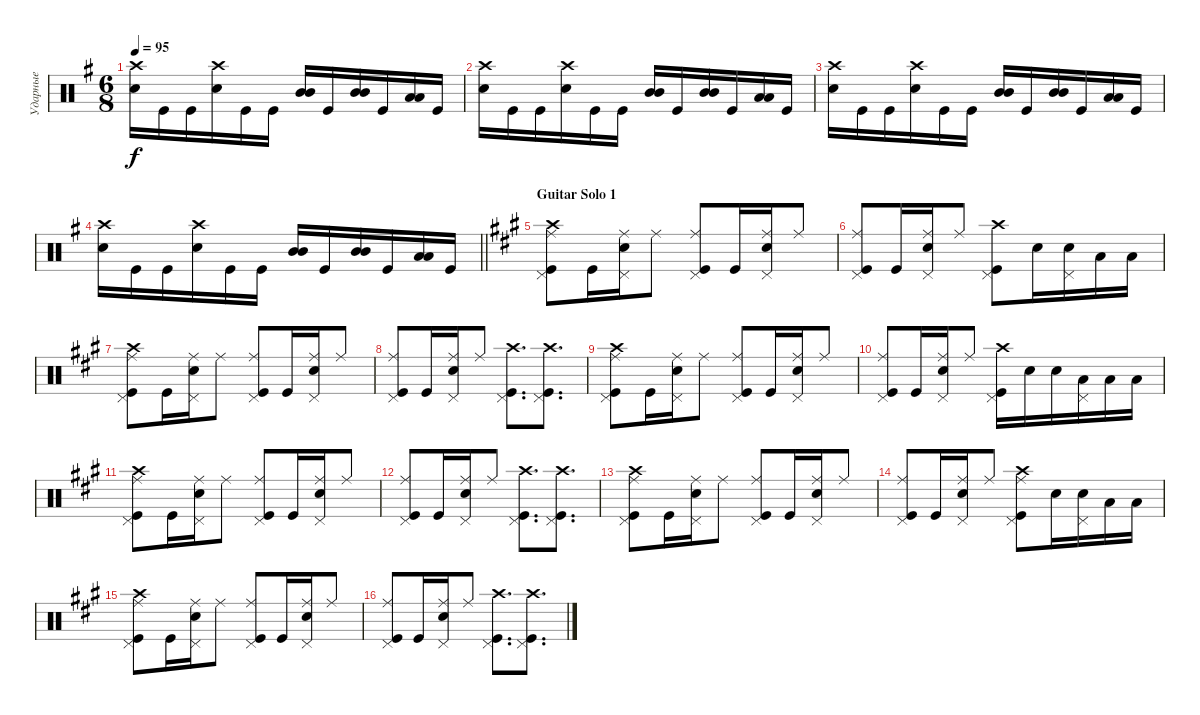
\track ("Ударные" "Ударные") {instrument percussion}
\staff {score}
\articulation defaults
\ts (6 8)
\tempo 95
\clef neutral
\ks eminor
("Snare (hit) 2" "Crash high (hit)").16{dy f} "Kick (hit)".16 "Kick (hit)".16 ("Snare (hit) 2" "Crash high (hit)").16 "Kick (hit)".16 "Kick (hit)".16 ("Mid Tom (hit)" "Mid Tom (hit)").16{bd 240} "Kick (hit)".16 ("Mid Tom (hit)" "Mid Tom (hit)").16{bd 240} "Kick (hit)".16 ("Low Tom (hit)" "Low Tom (hit)").16{bd 240} "Kick (hit)".16 |
("Snare (hit) 2" "Crash high (hit)").16 "Kick (hit)".16 "Kick (hit)".16 ("Snare (hit) 2" "Crash high (hit)").16 "Kick (hit)".16 "Kick (hit)".16 ("Mid Tom (hit)" "Mid Tom (hit)").16{bd 240} "Kick (hit)".16 ("Mid Tom (hit)" "Mid Tom (hit)").16{bd 240} "Kick (hit)".16 ("Low Tom (hit)" "Low Tom (hit)").16{bd 240} "Kick (hit)".16 |
("Snare (hit) 2" "Crash high (hit)").16 "Kick (hit)".16 "Kick (hit)".16 ("Snare (hit) 2" "Crash high (hit)").16 "Kick (hit)".16 "Kick (hit)".16 ("Mid Tom (hit)" "Mid Tom (hit)").16{bd 240} "Kick (hit)".16 ("Mid Tom (hit)" "Mid Tom (hit)").16{bd 240} "Kick (hit)".16 ("Low Tom (hit)" "Low Tom (hit)").16{bd 240} "Kick (hit)".16 |
\barLineRight lightlight
("Snare (hit) 2" "Crash high (hit)").16 "Kick (hit)".16 "Kick (hit)".16 ("Snare (hit) 2" "Crash high (hit)").16 "Kick (hit)".16 "Kick (hit)".16 ("Mid Tom (hit)" "Mid Tom (hit)").16{bd 240} "Kick (hit)".16 ("Mid Tom (hit)" "Mid Tom (hit)").16{bd 240} "Kick (hit)".16 ("Low Tom (hit)" "Low Tom (hit)").16{bd 240} "Kick (hit)".16 |
\section ("" "Guitar Solo 1")
\ks f#minor
("Kick (hit)" "Crash high (hit)" "Ride (middle)" "Pedal Hi-Hat (hit)").8 "Kick (hit)".16 ("Snare (hit) 2" "Ride (middle)" "Pedal Hi-Hat (hit)").16 "Ride (middle)".8 ("Kick (hit)" "Ride (middle)" "Pedal Hi-Hat (hit)").8 "Kick (hit)".16 ("Snare (hit) 2" "Ride (middle)" "Pedal Hi-Hat (hit)").16 "Ride (middle)".8 |
("Kick (hit)" "Pedal Hi-Hat (hit)" "Ride (middle)").8 "Kick (hit)".16 ("Snare (hit) 2" "Ride (middle)" "Pedal Hi-Hat (hit)").16 "Ride (middle)".8 ("Kick (hit)" "Pedal Hi-Hat (hit)" "Crash high (hit)").8 "Snare (hit) 2".16 ("Snare (hit) 2" "Pedal Hi-Hat (hit)").16 "Low Tom (hit)".16 "Low Tom (hit)".16 |
("Kick (hit)" "Crash high (hit)" "Ride (middle)" "Pedal Hi-Hat (hit)").8 "Kick (hit)".16 ("Snare (hit) 2" "Ride (middle)" "Pedal Hi-Hat (hit)").16 "Ride (middle)".8 ("Kick (hit)" "Ride (middle)" "Pedal Hi-Hat (hit)").8 "Kick (hit)".16 ("Snare (hit) 2" "Ride (middle)" "Pedal Hi-Hat (hit)").16 "Ride (middle)".8 |
("Kick (hit)" "Pedal Hi-Hat (hit)" "Ride (middle)").8 "Kick (hit)".16 ("Snare (hit) 2" "Ride (middle)" "Pedal Hi-Hat (hit)").16 "Ride (middle)".8 ("Kick (hit)" "Crash high (hit)" "Pedal Hi-Hat (hit)").8{d} ("Kick (hit)" "Crash high (hit)" "Pedal Hi-Hat (hit)").8{d} |
("Kick (hit)" "Crash high (hit)" "Ride (middle)" "Pedal Hi-Hat (hit)").8 "Kick (hit)".16 ("Snare (hit) 2" "Ride (middle)" "Pedal Hi-Hat (hit)").16 "Ride (middle)".8 ("Kick (hit)" "Ride (middle)" "Pedal Hi-Hat (hit)").8 "Kick (hit)".16 ("Snare (hit) 2" "Ride (middle)" "Pedal Hi-Hat (hit)").16 "Ride (middle)".8 |
("Kick (hit)" "Pedal Hi-Hat (hit)" "Ride (middle)").8 "Kick (hit)".16 ("Snare (hit) 2" "Ride (middle)" "Pedal Hi-Hat (hit)").16 "Ride (middle)".8 ("Kick (hit)" "Pedal Hi-Hat (hit)" "Crash high (hit)").16 "Snare (hit) 2".16 "Snare (hit) 2".16 ("Pedal Hi-Hat (hit)" "Low Tom (hit)").16 "Low Tom (hit)".16 "Low Tom (hit)".16 |
("Kick (hit)" "Crash high (hit)" "Ride (middle)" "Pedal Hi-Hat (hit)").8 "Kick (hit)".16 ("Snare (hit) 2" "Ride (middle)" "Pedal Hi-Hat (hit)").16 "Ride (middle)".8 ("Kick (hit)" "Ride (middle)" "Pedal Hi-Hat (hit)").8 "Kick (hit)".16 ("Snare (hit) 2" "Ride (middle)" "Pedal Hi-Hat (hit)").16 "Ride (middle)".8 |
("Kick (hit)" "Pedal Hi-Hat (hit)" "Ride (middle)").8 "Kick (hit)".16 ("Snare (hit) 2" "Ride (middle)" "Pedal Hi-Hat (hit)").16 "Ride (middle)".8 ("Kick (hit)" "Crash high (hit)" "Pedal Hi-Hat (hit)").8{d} ("Kick (hit)" "Crash high (hit)" "Pedal Hi-Hat (hit)").8{d} |
("Kick (hit)" "Crash high (hit)" "Ride (middle)" "Pedal Hi-Hat (hit)").8 "Kick (hit)".16 ("Snare (hit) 2" "Ride (middle)" "Pedal Hi-Hat (hit)").16 "Ride (middle)".8 ("Kick (hit)" "Ride (middle)" "Pedal Hi-Hat (hit)").8 "Kick (hit)".16 ("Snare (hit) 2" "Ride (middle)" "Pedal Hi-Hat (hit)").16 "Ride (middle)".8 |
("Kick (hit)" "Pedal Hi-Hat (hit)" "Ride (middle)").8 "Kick (hit)".16 ("Snare (hit) 2" "Ride (middle)" "Pedal Hi-Hat (hit)").16 "Ride (middle)".8 ("Kick (hit)" "Ride (middle)" "Crash high (hit)" "Pedal Hi-Hat (hit)").8 "Snare (hit) 2".16 ("Snare (hit) 2" "Pedal Hi-Hat (hit)").16 "Low Tom (hit)".16 "Low Tom (hit)".16 |
("Kick (hit)" "Crash high (hit)" "Ride (middle)" "Pedal Hi-Hat (hit)").8 "Kick (hit)".16 ("Snare (hit) 2" "Ride (middle)" "Pedal Hi-Hat (hit)").16 "Ride (middle)".8 ("Kick (hit)" "Ride (middle)" "Pedal Hi-Hat (hit)").8 "Kick (hit)".16 ("Snare (hit) 2" "Ride (middle)" "Pedal Hi-Hat (hit)").16 "Ride (middle)".8 |
("Kick (hit)" "Pedal Hi-Hat (hit)" "Ride (middle)").8 "Kick (hit)".16 ("Snare (hit) 2" "Ride (middle)" "Pedal Hi-Hat (hit)").16 "Ride (middle)".8 ("Kick (hit)" "Crash high (hit)" "Pedal Hi-Hat (hit)").8{d} ("Kick (hit)" "Crash high (hit)" "Pedal Hi-Hat (hit)").8{d}
